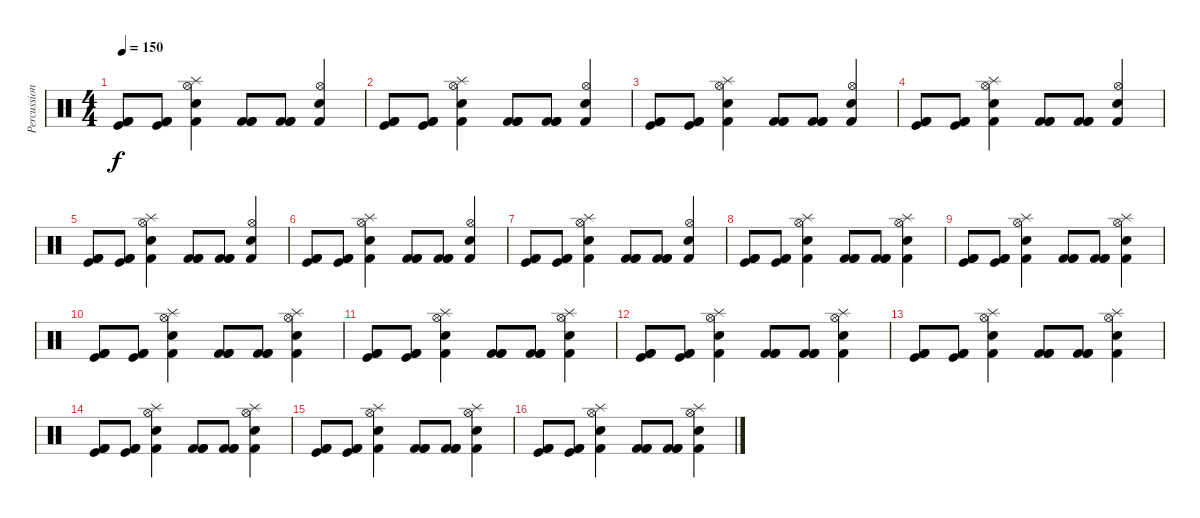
\track ("Percussion" "Percussion") {instrument percussion}
\staff {score}
\articulation defaults
\ts (4 4)
\tempo 150
\clef neutral
\ks c
("Kick (hit) 2" "Kick (hit)" "Kick (hit) 2").8{dy f} ("Kick (hit) 2" "Kick (hit)" "Kick (hit) 2").8 ("Hi-Hat (open)" "Snare (hit) 2" "Kick (hit) 2" "Splash (hit)").4 ("Kick (hit) 2" "Kick (hit) 2" "Kick (hit) 2").8 ("Kick (hit) 2" "Kick (hit) 2" "Kick (hit) 2").8 ("Hi-Hat (open)" "Snare (hit) 2" "Kick (hit) 2").4 |
("Kick (hit) 2" "Kick (hit)" "Kick (hit) 2").8 ("Kick (hit) 2" "Kick (hit)" "Kick (hit) 2").8 ("Hi-Hat (open)" "Snare (hit) 2" "Kick (hit) 2" "Splash (hit)").4 ("Kick (hit) 2" "Kick (hit) 2" "Kick (hit) 2").8 ("Kick (hit) 2" "Kick (hit) 2" "Kick (hit) 2").8 ("Hi-Hat (open)" "Snare (hit) 2" "Kick (hit) 2").4 |
("Kick (hit) 2" "Kick (hit)" "Kick (hit) 2").8 ("Kick (hit) 2" "Kick (hit)" "Kick (hit) 2").8 ("Hi-Hat (open)" "Snare (hit) 2" "Kick (hit) 2" "Splash (hit)").4 ("Kick (hit) 2" "Kick (hit) 2" "Kick (hit) 2").8 ("Kick (hit) 2" "Kick (hit) 2" "Kick (hit) 2").8 ("Hi-Hat (open)" "Snare (hit) 2" "Kick (hit) 2").4 |
("Kick (hit) 2" "Kick (hit)" "Kick (hit) 2").8 ("Kick (hit) 2" "Kick (hit)" "Kick (hit) 2").8 ("Hi-Hat (open)" "Snare (hit) 2" "Kick (hit) 2" "Splash (hit)").4 ("Kick (hit) 2" "Kick (hit) 2" "Kick (hit) 2").8 ("Kick (hit) 2" "Kick (hit) 2" "Kick (hit) 2").8 ("Hi-Hat (open)" "Snare (hit) 2" "Kick (hit) 2").4 |
("Kick (hit) 2" "Kick (hit)" "Kick (hit) 2").8 ("Kick (hit) 2" "Kick (hit)" "Kick (hit) 2").8 ("Hi-Hat (open)" "Snare (hit) 2" "Kick (hit) 2" "Splash (hit)").4 ("Kick (hit) 2" "Kick (hit) 2" "Kick (hit) 2").8 ("Kick (hit) 2" "Kick (hit) 2" "Kick (hit) 2").8 ("Hi-Hat (open)" "Snare (hit) 2" "Kick (hit) 2").4 |
("Kick (hit) 2" "Kick (hit)" "Kick (hit) 2").8 ("Kick (hit) 2" "Kick (hit)" "Kick (hit) 2").8 ("Hi-Hat (open)" "Snare (hit) 2" "Kick (hit) 2" "Splash (hit)").4 ("Kick (hit) 2" "Kick (hit) 2" "Kick (hit) 2").8 ("Kick (hit) 2" "Kick (hit) 2" "Kick (hit) 2").8 ("Hi-Hat (open)" "Snare (hit) 2" "Kick (hit) 2").4 |
("Kick (hit) 2" "Kick (hit)" "Kick (hit) 2").8 ("Kick (hit) 2" "Kick (hit)" "Kick (hit) 2").8 ("Hi-Hat (open)" "Snare (hit) 2" "Kick (hit) 2" "Splash (hit)").4 ("Kick (hit) 2" "Kick (hit) 2" "Kick (hit) 2").8 ("Kick (hit) 2" "Kick (hit) 2" "Kick (hit) 2").8 ("Hi-Hat (open)" "Snare (hit) 2" "Kick (hit) 2").4 |
("Kick (hit) 2" "Kick (hit)" "Kick (hit) 2").8 ("Kick (hit) 2" "Kick (hit)" "Kick (hit) 2").8 ("Hi-Hat (open)" "Snare (hit) 2" "Kick (hit) 2" "Splash (hit)").4 ("Kick (hit) 2" "Kick (hit) 2" "Kick (hit) 2").8 ("Kick (hit) 2" "Kick (hit) 2" "Kick (hit) 2").8 ("Hi-Hat (open)" "Snare (hit) 2" "Kick (hit) 2" "Splash (hit)").4 |
("Kick (hit) 2" "Kick (hit)" "Kick (hit) 2").8 ("Kick (hit) 2" "Kick (hit)" "Kick (hit) 2").8 ("Hi-Hat (open)" "Snare (hit) 2" "Kick (hit) 2" "Splash (hit)").4 ("Kick (hit) 2" "Kick (hit) 2" "Kick (hit) 2").8 ("Kick (hit) 2" "Kick (hit) 2" "Kick (hit) 2").8 ("Hi-Hat (open)" "Snare (hit) 2" "Kick (hit) 2" "Splash (hit)").4 |
("Kick (hit) 2" "Kick (hit)" "Kick (hit) 2").8 ("Kick (hit) 2" "Kick (hit)" "Kick (hit) 2").8 ("Hi-Hat (open)" "Snare (hit) 2" "Kick (hit) 2" "Splash (hit)").4 ("Kick (hit) 2" "Kick (hit) 2" "Kick (hit) 2").8 ("Kick (hit) 2" "Kick (hit) 2" "Kick (hit) 2").8 ("Hi-Hat (open)" "Snare (hit) 2" "Kick (hit) 2" "Splash (hit)").4 |
("Kick (hit) 2" "Kick (hit)" "Kick (hit) 2").8 ("Kick (hit) 2" "Kick (hit)" "Kick (hit) 2").8 ("Hi-Hat (open)" "Snare (hit) 2" "Kick (hit) 2" "Splash (hit)").4 ("Kick (hit) 2" "Kick (hit) 2" "Kick (hit) 2").8 ("Kick (hit) 2" "Kick (hit) 2" "Kick (hit) 2").8 ("Hi-Hat (open)" "Snare (hit) 2" "Kick (hit) 2" "Splash (hit)").4 |
("Kick (hit) 2" "Kick (hit)" "Kick (hit) 2").8 ("Kick (hit) 2" "Kick (hit)" "Kick (hit) 2").8 ("Hi-Hat (open)" "Snare (hit) 2" "Kick (hit) 2" "Splash (hit)").4 ("Kick (hit) 2" "Kick (hit) 2" "Kick (hit) 2").8 ("Kick (hit) 2" "Kick (hit) 2" "Kick (hit) 2").8 ("Hi-Hat (open)" "Snare (hit) 2" "Kick (hit) 2" "Splash (hit)").4 |
("Kick (hit) 2" "Kick (hit)" "Kick (hit) 2").8 ("Kick (hit) 2" "Kick (hit)" "Kick (hit) 2").8 ("Hi-Hat (open)" "Snare (hit) 2" "Kick (hit) 2" "Splash (hit)").4 ("Kick (hit) 2" "Kick (hit) 2" "Kick (hit) 2").8 ("Kick (hit) 2" "Kick (hit) 2" "Kick (hit) 2").8 ("Hi-Hat (open)" "Snare (hit) 2" "Kick (hit) 2" "Splash (hit)").4 |
("Kick (hit) 2" "Kick (hit)" "Kick (hit) 2").8 ("Kick (hit) 2" "Kick (hit)" "Kick (hit) 2").8 ("Hi-Hat (open)" "Snare (hit) 2" "Kick (hit) 2" "Splash (hit)").4 ("Kick (hit) 2" "Kick (hit) 2" "Kick (hit) 2").8 ("Kick (hit) 2" "Kick (hit) 2" "Kick (hit) 2").8 ("Hi-Hat (open)" "Snare (hit) 2" "Kick (hit) 2" "Splash (hit)").4 |
("Kick (hit) 2" "Kick (hit)" "Kick (hit) 2").8 ("Kick (hit) 2" "Kick (hit)" "Kick (hit) 2").8 ("Hi-Hat (open)" "Snare (hit) 2" "Kick (hit) 2" "Splash (hit)").4 ("Kick (hit) 2" "Kick (hit) 2" "Kick (hit) 2").8 ("Kick (hit) 2" "Kick (hit) 2" "Kick (hit) 2").8 ("Hi-Hat (open)" "Snare (hit) 2" "Kick (hit) 2" "Splash (hit)").4 |
("Kick (hit) 2" "Kick (hit)" "Kick (hit) 2").8 ("Kick (hit) 2" "Kick (hit)" "Kick (hit) 2").8 ("Hi-Hat (open)" "Snare (hit) 2" "Kick (hit) 2" "Splash (hit)").4 ("Kick (hit) 2" "Kick (hit) 2" "Kick (hit) 2").8 ("Kick (hit) 2" "Kick (hit) 2" "Kick (hit) 2").8 ("Hi-Hat (open)" "Snare (hit) 2" "Kick (hit) 2" "Splash (hit)").4
